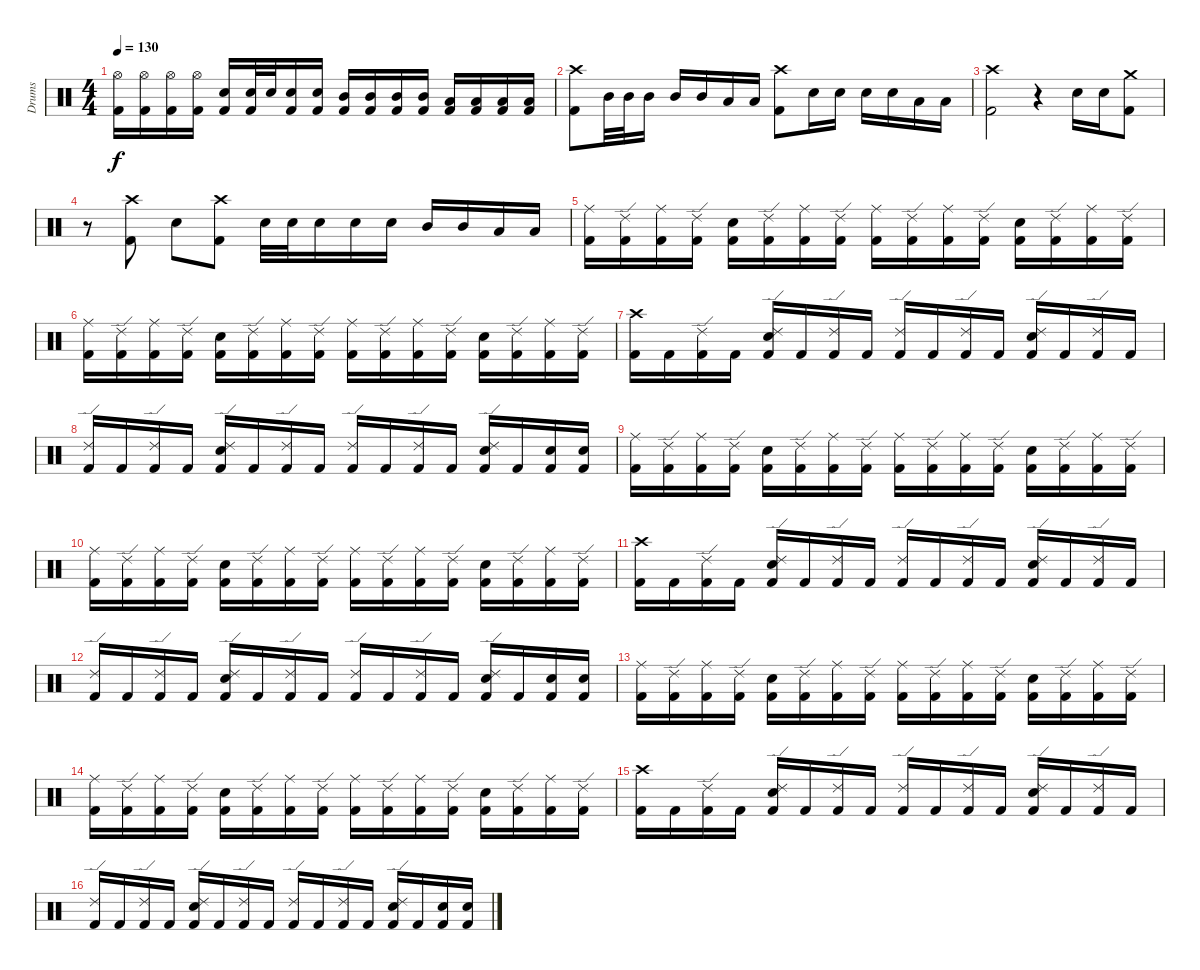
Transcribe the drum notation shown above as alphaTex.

\track ("Drums" "Drums") {instrument percussion}
\staff {score}
\articulation defaults
\ts (4 4)
\tempo 130
\clef neutral
\ks c
("Hi-Hat (open)" "Kick (hit) 2").16{dy f} ("Hi-Hat (open)" "Kick (hit) 2").16 ("Hi-Hat (open)" "Kick (hit) 2").16 ("Hi-Hat (open)" "Kick (hit) 2").16 ("Electric Snare (hit)" "Kick (hit) 2").16 ("Electric Snare (hit)" "Kick (hit) 2").32 "Electric Snare (hit)".32 ("Electric Snare (hit)" "Kick (hit) 2").16 ("Electric Snare (hit)" "Kick (hit) 2").16 ("Mid Tom (hit)" "Kick (hit) 2").16 ("Mid Tom (hit)" "Kick (hit) 2").16 ("Mid Tom (hit)" "Kick (hit) 2").16 ("Mid Tom (hit)" "Kick (hit) 2").16 ("Low Tom (hit)" "Kick (hit) 2").16 ("Low Tom (hit)" "Kick (hit) 2").16 ("Low Tom (hit)" "Kick (hit) 2").16 ("Low Tom (hit)" "Kick (hit) 2").16 |
("Crash high (hit)" "Kick (hit) 2").8 "Mid Tom (hit)".32 "Mid Tom (hit)".32 "Mid Tom (hit)".16 "Mid Tom (hit)".16 "Mid Tom (hit)".16 "Low Tom (hit)".16 "Low Tom (hit)".16 ("Crash high (hit)" "Kick (hit) 2").8 "Electric Snare (hit)".16 "Electric Snare (hit)".16 "Electric Snare (hit)".16 "Electric Snare (hit)".16 "Low Tom (hit)".16 "Low Tom (hit)".16 |
("Crash high (hit)" "Kick (hit) 2").2 r.4 "Electric Snare (hit)".16 "Electric Snare (hit)".16 ("Crash medium (hit)" "Kick (hit) 2").8 |
r.8 ("Crash high (hit)" "Kick (hit) 2").8 "Electric Snare (hit)".8 ("Crash high (hit)" "Kick (hit) 2").8 "Electric Snare (hit)".32 "Electric Snare (hit)".32 "Electric Snare (hit)".16 "Electric Snare (hit)".16 "Electric Snare (hit)".16 "Mid Tom (hit)".16 "Mid Tom (hit)".16 "Low Tom (hit)".16 "Low Tom (hit)".16 |
("Ride (middle)" "Kick (hit) 2").16 ("Ride (edge) 2" "Kick (hit) 2").16 ("Ride (middle)" "Kick (hit) 2").16 ("Ride (edge) 2" "Kick (hit) 2").16 ("Electric Snare (hit)" "Kick (hit) 2").16 ("Ride (edge) 2" "Kick (hit) 2").16 ("Ride (middle)" "Kick (hit) 2").16 ("Ride (edge) 2" "Kick (hit) 2").16 ("Ride (middle)" "Kick (hit) 2").16 ("Ride (edge) 2" "Kick (hit) 2").16 ("Ride (middle)" "Kick (hit) 2").16 ("Ride (edge) 2" "Kick (hit) 2").16 ("Electric Snare (hit)" "Kick (hit) 2").16 ("Ride (edge) 2" "Kick (hit) 2").16 ("Ride (middle)" "Kick (hit) 2").16 ("Ride (edge) 2" "Kick (hit) 2").16 |
("Ride (middle)" "Kick (hit) 2").16 ("Ride (edge) 2" "Kick (hit) 2").16 ("Ride (middle)" "Kick (hit) 2").16 ("Ride (edge) 2" "Kick (hit) 2").16 ("Electric Snare (hit)" "Kick (hit) 2").16 ("Ride (edge) 2" "Kick (hit) 2").16 ("Ride (middle)" "Kick (hit) 2").16 ("Ride (edge) 2" "Kick (hit) 2").16 ("Ride (middle)" "Kick (hit) 2").16 ("Ride (edge) 2" "Kick (hit) 2").16 ("Ride (middle)" "Kick (hit) 2").16 ("Ride (edge) 2" "Kick (hit) 2").16 ("Electric Snare (hit)" "Kick (hit) 2").16 ("Ride (edge) 2" "Kick (hit) 2").16 ("Ride (middle)" "Kick (hit) 2").16 ("Ride (edge) 2" "Kick (hit) 2").16 |
("Crash high (hit)" "Kick (hit) 2").16 "Kick (hit) 2".16 ("Ride (edge) 2" "Kick (hit) 2").16 "Kick (hit) 2".16 ("Ride (edge) 2" "Electric Snare (hit)" "Kick (hit) 2").16 "Kick (hit) 2".16 ("Ride (edge) 2" "Kick (hit) 2").16 "Kick (hit) 2".16 ("Ride (edge) 2" "Kick (hit) 2").16 "Kick (hit) 2".16 ("Ride (edge) 2" "Kick (hit) 2").16 "Kick (hit) 2".16 ("Ride (edge) 2" "Electric Snare (hit)" "Kick (hit) 2").16 "Kick (hit) 2".16 ("Ride (edge) 2" "Kick (hit) 2").16 "Kick (hit) 2".16 |
("Ride (edge) 2" "Kick (hit) 2").16 "Kick (hit) 2".16 ("Ride (edge) 2" "Kick (hit) 2").16 "Kick (hit) 2".16 ("Ride (edge) 2" "Electric Snare (hit)" "Kick (hit) 2").16 "Kick (hit) 2".16 ("Ride (edge) 2" "Kick (hit) 2").16 "Kick (hit) 2".16 ("Ride (edge) 2" "Kick (hit) 2").16 "Kick (hit) 2".16 ("Ride (edge) 2" "Kick (hit) 2").16 "Kick (hit) 2".16 ("Ride (edge) 2" "Electric Snare (hit)" "Kick (hit) 2").16 "Kick (hit) 2".16 ("Electric Snare (hit)" "Kick (hit) 2").16 ("Electric Snare (hit)" "Kick (hit) 2").16 |
("Ride (middle)" "Kick (hit) 2").16 ("Ride (edge) 2" "Kick (hit) 2").16 ("Ride (middle)" "Kick (hit) 2").16 ("Ride (edge) 2" "Kick (hit) 2").16 ("Electric Snare (hit)" "Kick (hit) 2").16 ("Ride (edge) 2" "Kick (hit) 2").16 ("Ride (middle)" "Kick (hit) 2").16 ("Ride (edge) 2" "Kick (hit) 2").16 ("Ride (middle)" "Kick (hit) 2").16 ("Ride (edge) 2" "Kick (hit) 2").16 ("Ride (middle)" "Kick (hit) 2").16 ("Ride (edge) 2" "Kick (hit) 2").16 ("Electric Snare (hit)" "Kick (hit) 2").16 ("Ride (edge) 2" "Kick (hit) 2").16 ("Ride (middle)" "Kick (hit) 2").16 ("Ride (edge) 2" "Kick (hit) 2").16 |
("Ride (middle)" "Kick (hit) 2").16 ("Ride (edge) 2" "Kick (hit) 2").16 ("Ride (middle)" "Kick (hit) 2").16 ("Ride (edge) 2" "Kick (hit) 2").16 ("Electric Snare (hit)" "Kick (hit) 2").16 ("Ride (edge) 2" "Kick (hit) 2").16 ("Ride (middle)" "Kick (hit) 2").16 ("Ride (edge) 2" "Kick (hit) 2").16 ("Ride (middle)" "Kick (hit) 2").16 ("Ride (edge) 2" "Kick (hit) 2").16 ("Ride (middle)" "Kick (hit) 2").16 ("Ride (edge) 2" "Kick (hit) 2").16 ("Electric Snare (hit)" "Kick (hit) 2").16 ("Ride (edge) 2" "Kick (hit) 2").16 ("Ride (middle)" "Kick (hit) 2").16 ("Ride (edge) 2" "Kick (hit) 2").16 |
("Crash high (hit)" "Kick (hit) 2").16 "Kick (hit) 2".16 ("Ride (edge) 2" "Kick (hit) 2").16 "Kick (hit) 2".16 ("Ride (edge) 2" "Electric Snare (hit)" "Kick (hit) 2").16 "Kick (hit) 2".16 ("Ride (edge) 2" "Kick (hit) 2").16 "Kick (hit) 2".16 ("Ride (edge) 2" "Kick (hit) 2").16 "Kick (hit) 2".16 ("Ride (edge) 2" "Kick (hit) 2").16 "Kick (hit) 2".16 ("Ride (edge) 2" "Electric Snare (hit)" "Kick (hit) 2").16 "Kick (hit) 2".16 ("Ride (edge) 2" "Kick (hit) 2").16 "Kick (hit) 2".16 |
("Ride (edge) 2" "Kick (hit) 2").16 "Kick (hit) 2".16 ("Ride (edge) 2" "Kick (hit) 2").16 "Kick (hit) 2".16 ("Ride (edge) 2" "Electric Snare (hit)" "Kick (hit) 2").16 "Kick (hit) 2".16 ("Ride (edge) 2" "Kick (hit) 2").16 "Kick (hit) 2".16 ("Ride (edge) 2" "Kick (hit) 2").16 "Kick (hit) 2".16 ("Ride (edge) 2" "Kick (hit) 2").16 "Kick (hit) 2".16 ("Ride (edge) 2" "Electric Snare (hit)" "Kick (hit) 2").16 "Kick (hit) 2".16 ("Electric Snare (hit)" "Kick (hit) 2").16 ("Electric Snare (hit)" "Kick (hit) 2").16 |
("Ride (middle)" "Kick (hit) 2").16 ("Ride (edge) 2" "Kick (hit) 2").16 ("Ride (middle)" "Kick (hit) 2").16 ("Ride (edge) 2" "Kick (hit) 2").16 ("Electric Snare (hit)" "Kick (hit) 2").16 ("Ride (edge) 2" "Kick (hit) 2").16 ("Ride (middle)" "Kick (hit) 2").16 ("Ride (edge) 2" "Kick (hit) 2").16 ("Ride (middle)" "Kick (hit) 2").16 ("Ride (edge) 2" "Kick (hit) 2").16 ("Ride (middle)" "Kick (hit) 2").16 ("Ride (edge) 2" "Kick (hit) 2").16 ("Electric Snare (hit)" "Kick (hit) 2").16 ("Ride (edge) 2" "Kick (hit) 2").16 ("Ride (middle)" "Kick (hit) 2").16 ("Ride (edge) 2" "Kick (hit) 2").16 |
("Ride (middle)" "Kick (hit) 2").16 ("Ride (edge) 2" "Kick (hit) 2").16 ("Ride (middle)" "Kick (hit) 2").16 ("Ride (edge) 2" "Kick (hit) 2").16 ("Electric Snare (hit)" "Kick (hit) 2").16 ("Ride (edge) 2" "Kick (hit) 2").16 ("Ride (middle)" "Kick (hit) 2").16 ("Ride (edge) 2" "Kick (hit) 2").16 ("Ride (middle)" "Kick (hit) 2").16 ("Ride (edge) 2" "Kick (hit) 2").16 ("Ride (middle)" "Kick (hit) 2").16 ("Ride (edge) 2" "Kick (hit) 2").16 ("Electric Snare (hit)" "Kick (hit) 2").16 ("Ride (edge) 2" "Kick (hit) 2").16 ("Ride (middle)" "Kick (hit) 2").16 ("Ride (edge) 2" "Kick (hit) 2").16 |
("Crash high (hit)" "Kick (hit) 2").16 "Kick (hit) 2".16 ("Ride (edge) 2" "Kick (hit) 2").16 "Kick (hit) 2".16 ("Ride (edge) 2" "Electric Snare (hit)" "Kick (hit) 2").16 "Kick (hit) 2".16 ("Ride (edge) 2" "Kick (hit) 2").16 "Kick (hit) 2".16 ("Ride (edge) 2" "Kick (hit) 2").16 "Kick (hit) 2".16 ("Ride (edge) 2" "Kick (hit) 2").16 "Kick (hit) 2".16 ("Ride (edge) 2" "Electric Snare (hit)" "Kick (hit) 2").16 "Kick (hit) 2".16 ("Ride (edge) 2" "Kick (hit) 2").16 "Kick (hit) 2".16 |
("Ride (edge) 2" "Kick (hit) 2").16 "Kick (hit) 2".16 ("Ride (edge) 2" "Kick (hit) 2").16 "Kick (hit) 2".16 ("Ride (edge) 2" "Electric Snare (hit)" "Kick (hit) 2").16 "Kick (hit) 2".16 ("Ride (edge) 2" "Kick (hit) 2").16 "Kick (hit) 2".16 ("Ride (edge) 2" "Kick (hit) 2").16 "Kick (hit) 2".16 ("Ride (edge) 2" "Kick (hit) 2").16 "Kick (hit) 2".16 ("Ride (edge) 2" "Electric Snare (hit)" "Kick (hit) 2").16 "Kick (hit) 2".16 ("Electric Snare (hit)" "Kick (hit) 2").16 ("Electric Snare (hit)" "Kick (hit) 2").16
